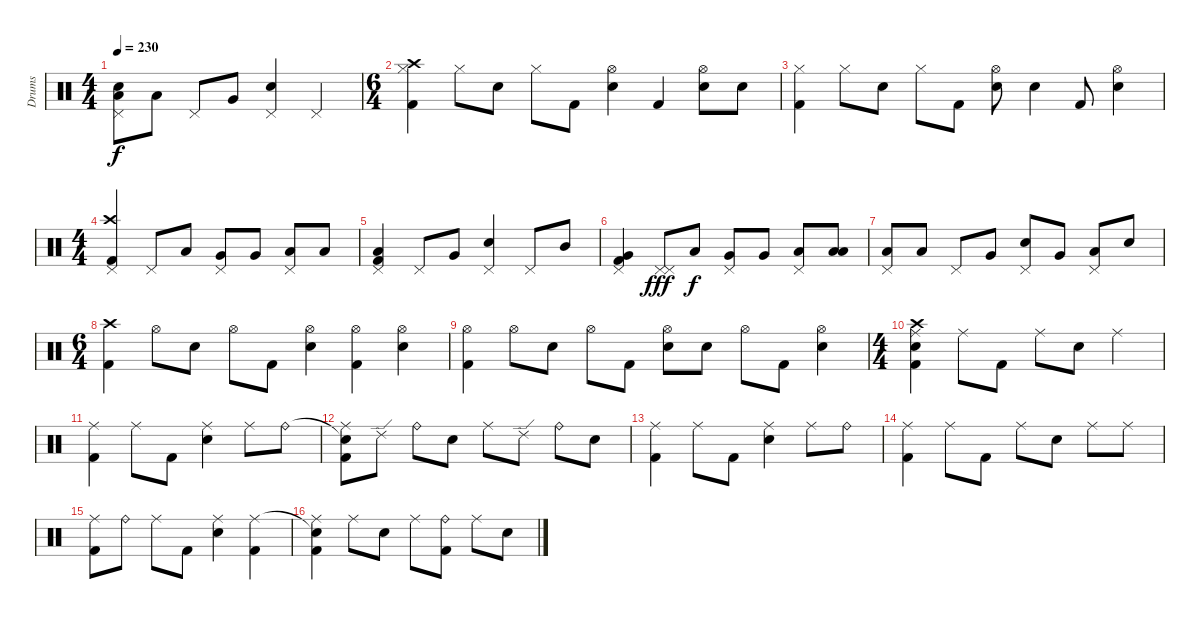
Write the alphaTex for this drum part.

\track ("Drums" "Drums") {instrument percussion}
\staff {score}
\articulation defaults
\ts (4 4)
\tempo 230
\clef neutral
\ks c
("Snare (hit)"{t} "Pedal Hi-Hat (hit)" "Low Floor Tom (hit)").8{dy f} "Low Tom (hit)".8 "Pedal Hi-Hat (hit)".8 "Very Low Tom (hit)".8 ("Pedal Hi-Hat (hit)" "Electric Snare (hit)").4 "Pedal Hi-Hat (hit)".4 |
\ts (6 4)
("Crash high (hit)" "Hi-Hat (closed)" "Kick (hit) 2").4 "Hi-Hat (closed)".8 "Electric Snare (hit)".8 "Hi-Hat (closed)".8 "Kick (hit) 2".8 ("Hi-Hat (open)" "Electric Snare (hit)").4 "Kick (hit) 2".4 ("Hi-Hat (open)" "Electric Snare (hit)").8 "Electric Snare (hit)".8 |
("Hi-Hat (closed)" "Kick (hit) 2").4 "Hi-Hat (closed)".8 "Electric Snare (hit)".8 "Hi-Hat (closed)".8 "Kick (hit) 2".8 ("Hi-Hat (open)" "Electric Snare (hit)").8 "Electric Snare (hit)".4 "Kick (hit) 2".8 ("Hi-Hat (open)" "Electric Snare (hit)").4 |
\ts (4 4)
("Crash high (hit)" "Pedal Hi-Hat (hit)" "Kick (hit) 2").4 "Pedal Hi-Hat (hit)".8 "Low Tom (hit)".8 ("Pedal Hi-Hat (hit)" "Very Low Tom (hit)").8 "Very Low Tom (hit)".8 ("Pedal Hi-Hat (hit)" "Low Floor Tom (hit)").8 "Low Tom (hit)".8 |
("Pedal Hi-Hat (hit)" "Low Floor Tom (hit)" "Kick (hit) 2").4 "Pedal Hi-Hat (hit)".8 "Very Low Tom (hit)".8 ("Pedal Hi-Hat (hit)" "Electric Snare (hit)").4 "Pedal Hi-Hat (hit)".8 "Mid Tom (hit)".8 |
("Pedal Hi-Hat (hit)" "Very Low Tom (hit)" "Kick (hit) 2").4 ("Pedal Hi-Hat (hit)" "Pedal Hi-Hat (hit)").8{dy fff} "Low Tom (hit)".8{dy f} ("Pedal Hi-Hat (hit)" "Very Low Tom (hit)").8 "Very Low Tom (hit)".8 ("Pedal Hi-Hat (hit)" "Low Floor Tom (hit)").8 ("Low Tom (hit)" "Low Floor Tom (hit)").8 |
("Pedal Hi-Hat (hit)" "Low Floor Tom (hit)").8 "Low Tom (hit)".8 "Pedal Hi-Hat (hit)".8 "Very Low Tom (hit)".8 ("Pedal Hi-Hat (hit)" "Electric Snare (hit)").8 "Very Low Tom (hit)".8 ("Pedal Hi-Hat (hit)" "Low Floor Tom (hit)").8 "Electric Snare (hit)".8 |
\ts (6 4)
("Crash high (hit)" "Kick (hit) 2").4 "Hi-Hat (open)".8 "Electric Snare (hit)".8 "Hi-Hat (open)".8 "Kick (hit) 2".8 ("Hi-Hat (open)" "Electric Snare (hit)").4 ("Hi-Hat (open)" "Kick (hit) 2").4 ("Hi-Hat (open)" "Electric Snare (hit)").4 |
("Hi-Hat (open)" "Kick (hit) 2").4 "Hi-Hat (open)".8 "Electric Snare (hit)".8 "Hi-Hat (open)".8 "Kick (hit) 2".8 ("Hi-Hat (open)" "Electric Snare (hit)").8 "Electric Snare (hit)".8 "Hi-Hat (open)".8 "Kick (hit) 2".8 ("Hi-Hat (open)" "Electric Snare (hit)").4 |
\ts (4 4)
("Crash high (hit)" "Ride (middle)" "Snare (hit)" "Kick (hit) 2").4 "Ride (middle)".8 "Kick (hit) 2".8 "Ride (middle)".8 "Electric Snare (hit)".8 "Ride (middle)".4 |
("Ride (middle)" "Kick (hit) 2").4 "Ride (middle)".8 "Kick (hit) 2".8 ("Ride (middle)" "Electric Snare (hit)").4 "Ride (middle)".8 "Ride (bell)".8 |
("Snare (hit)"{t} "Ride (middle)" "Kick (hit) 2").8 "Ride (edge) 2".8 "Ride (bell)".8 "Electric Snare (hit)".8 "Ride (middle)".8 "Ride (edge) 2".8 "Ride (bell)".8 "Electric Snare (hit)".8 |
("Ride (middle)" "Kick (hit) 2").4 "Ride (middle)".8 "Kick (hit) 2".8 ("Ride (middle)" "Electric Snare (hit)").4 "Ride (middle)".8 "Ride (bell)".8 |
("Ride (middle)" "Kick (hit) 2").4 "Ride (middle)".8 "Kick (hit) 2".8 "Ride (middle)".8 "Electric Snare (hit)".8 "Ride (middle)".8 "Ride (middle)".8 |
("Ride (middle)" "Kick (hit) 2").8 "Ride (bell)".8 "Ride (middle)".8 "Kick (hit) 2".8 ("Ride (middle)" "Electric Snare (hit)").4 ("Ride (middle)" "Kick (hit) 2").4 |
("Snare (hit)"{t} "Ride (middle)" "Kick (hit) 2").4 "Ride (middle)".8 "Electric Snare (hit)".8 "Ride (middle)".8 ("Ride (bell)" "Kick (hit) 2").8 "Ride (middle)".8 "Electric Snare (hit)".8
